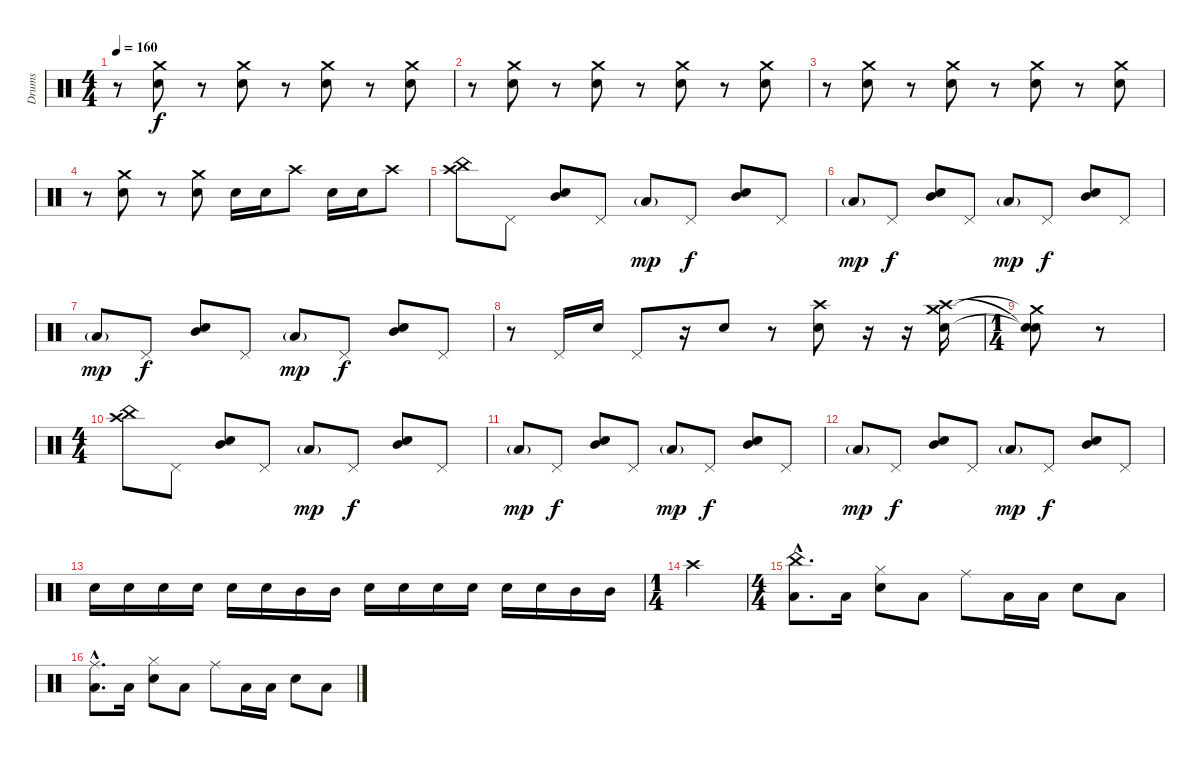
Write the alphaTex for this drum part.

\track ("Drums" "Drums") {instrument percussion}
\staff {score}
\articulation defaults
\ts (4 4)
\tempo 160
\clef neutral
\ks aminor
r.8{dy f} ("Crash medium (hit)" "Electric Snare (hit)").8 r.8 ("Crash medium (hit)" "Electric Snare (hit)").8 r.8 ("Crash medium (hit)" "Electric Snare (hit)").8 r.8 ("Crash medium (hit)" "Electric Snare (hit)").8 |
r.8 ("Crash medium (hit)" "Electric Snare (hit)").8 r.8 ("Crash medium (hit)" "Electric Snare (hit)").8 r.8 ("Crash medium (hit)" "Electric Snare (hit)").8 r.8 ("Crash medium (hit)" "Electric Snare (hit)").8 |
r.8 ("Crash medium (hit)" "Electric Snare (hit)").8 r.8 ("Crash medium (hit)" "Electric Snare (hit)").8 r.8 ("Crash medium (hit)" "Electric Snare (hit)").8 r.8 ("Crash medium (hit)" "Electric Snare (hit)").8 |
r.8 ("Crash medium (hit)" "Electric Snare (hit)").8 r.8 ("Crash medium (hit)" "Electric Snare (hit)").8 "Electric Snare (hit)".16 "Electric Snare (hit)".16 "Crash high (hit)".8 "Electric Snare (hit)".16 "Electric Snare (hit)".16 "Crash high (hit)".8 |
("Crash high (hit)" "China (hit)").8 "Pedal Hi-Hat (hit)".8 ("Mid Tom (hit)" "Electric Snare (hit)").8 "Pedal Hi-Hat (hit)".8 "Low Floor Tom (hit)"{g}.8{dy mp} "Pedal Hi-Hat (hit)".8{dy f} ("Mid Tom (hit)" "Electric Snare (hit)").8 "Pedal Hi-Hat (hit)".8 |
"Low Floor Tom (hit)"{g}.8{dy mp} "Pedal Hi-Hat (hit)".8{dy f} ("Mid Tom (hit)" "Electric Snare (hit)").8 "Pedal Hi-Hat (hit)".8 "Low Floor Tom (hit)"{g}.8{dy mp} "Pedal Hi-Hat (hit)".8{dy f} ("Mid Tom (hit)" "Electric Snare (hit)").8 "Pedal Hi-Hat (hit)".8 |
"Low Floor Tom (hit)"{g}.8{dy mp} "Pedal Hi-Hat (hit)".8{dy f} ("Mid Tom (hit)" "Electric Snare (hit)").8 "Pedal Hi-Hat (hit)".8 "Low Floor Tom (hit)"{g}.8{dy mp} "Pedal Hi-Hat (hit)".8{dy f} ("Mid Tom (hit)" "Electric Snare (hit)").8 "Pedal Hi-Hat (hit)".8 |
r.8 "Pedal Hi-Hat (hit)".16 "Electric Snare (hit)".16 "Pedal Hi-Hat (hit)".8 r.16 "Electric Snare (hit)".8 r.8 ("Crash high (hit)" "Electric Snare (hit)").8 r.16 r.16 ("Crash high (hit)" "Crash medium (hit)" "Electric Snare (hit)").16 |
\ts (1 4)
("Snare (hit)"{t} "Crash medium (hit)"{t} "Electric Snare (hit)"{t}).8 r.8 |
\ts (4 4)
("Crash high (hit)" "China (hit)").8 "Pedal Hi-Hat (hit)".8 ("Mid Tom (hit)" "Electric Snare (hit)").8 "Pedal Hi-Hat (hit)".8 "Low Floor Tom (hit)"{g}.8{dy mp} "Pedal Hi-Hat (hit)".8{dy f} ("Mid Tom (hit)" "Electric Snare (hit)").8 "Pedal Hi-Hat (hit)".8 |
"Low Floor Tom (hit)"{g}.8{dy mp} "Pedal Hi-Hat (hit)".8{dy f} ("Mid Tom (hit)" "Electric Snare (hit)").8 "Pedal Hi-Hat (hit)".8 "Low Floor Tom (hit)"{g}.8{dy mp} "Pedal Hi-Hat (hit)".8{dy f} ("Mid Tom (hit)" "Electric Snare (hit)").8 "Pedal Hi-Hat (hit)".8 |
"Low Floor Tom (hit)"{g}.8{dy mp} "Pedal Hi-Hat (hit)".8{dy f} ("Mid Tom (hit)" "Electric Snare (hit)").8 "Pedal Hi-Hat (hit)".8 "Low Floor Tom (hit)"{g}.8{dy mp} "Pedal Hi-Hat (hit)".8{dy f} ("Mid Tom (hit)" "Electric Snare (hit)").8 "Pedal Hi-Hat (hit)".8 |
"Electric Snare (hit)".16 "Electric Snare (hit)".16 "Electric Snare (hit)".16 "Electric Snare (hit)".16 "Electric Snare (hit)".16 "Electric Snare (hit)".16 "Mid Tom (hit)".16 "Mid Tom (hit)".16 "Electric Snare (hit)".16 "Electric Snare (hit)".16 "Snare (hit) 2".16 "Snare (hit) 2".16 "Electric Snare (hit)".16 "Electric Snare (hit)".16 "Mid Tom (hit)".16 "Mid Tom (hit)".16 |
\ts (1 4)
"Crash high (hit)".4 |
\ts (4 4)
("China (hit)"{hac} "Low Floor Tom (hit)"{hac}).8{d} "Low Floor Tom (hit)".16 ("Hi-Hat (closed)" "Electric Snare (hit)").8 "Low Floor Tom (hit)".8 "Ride (middle)".8 "Low Floor Tom (hit)".16 "Low Floor Tom (hit)".16 "Electric Snare (hit)".8 "Low Floor Tom (hit)".8 |
("Ride (middle)"{hac} "Low Floor Tom (hit)"{hac}).8{d} "Low Floor Tom (hit)".16 ("Hi-Hat (closed)" "Electric Snare (hit)").8 "Low Floor Tom (hit)".8 "Ride (middle)".8 "Low Floor Tom (hit)".16 "Low Floor Tom (hit)".16 "Electric Snare (hit)".8 "Low Floor Tom (hit)".8
